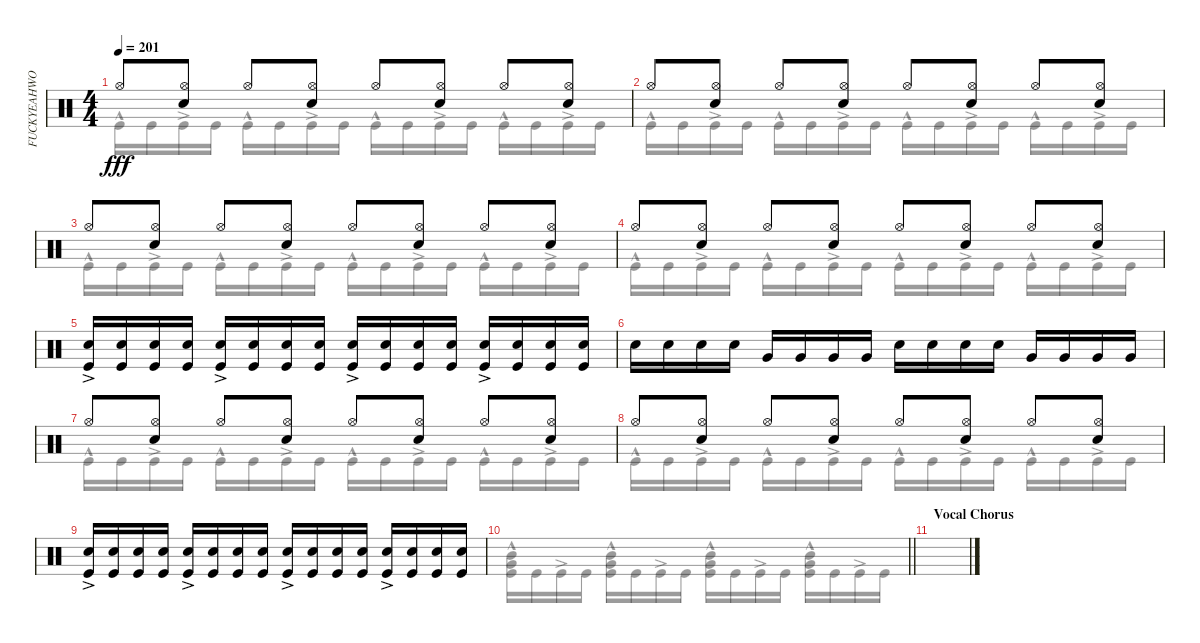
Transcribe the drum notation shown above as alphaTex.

\track ("FUCKYEAHWOOTDAVEMACKINTOSH(Percussion)" "FUCKYEAHWO") {instrument percussion}
\staff {score}
\articulation defaults
\voice
\ts (4 4)
\tempo 201
\clef neutral
\ks c "Hi-Hat (open)".8{dy fff}
("Hi-Hat (open)" "Snare (hit) 2").8 "Hi-Hat (open)".8 ("Hi-Hat (open)" "Snare (hit) 2").8 "Hi-Hat (open)".8 ("Hi-Hat (open)" "Snare (hit) 2").8 "Hi-Hat (open)".8 ("Hi-Hat (open)" "Snare (hit) 2").8 |
"Hi-Hat (open)".8 ("Hi-Hat (open)" "Snare (hit) 2").8 "Hi-Hat (open)".8 ("Hi-Hat (open)" "Snare (hit) 2").8 "Hi-Hat (open)".8 ("Hi-Hat (open)" "Snare (hit) 2").8 "Hi-Hat (open)".8 ("Hi-Hat (open)" "Snare (hit) 2").8 |
"Hi-Hat (open)".8 ("Hi-Hat (open)" "Snare (hit) 2").8 "Hi-Hat (open)".8 ("Hi-Hat (open)" "Snare (hit) 2").8 "Hi-Hat (open)".8 ("Hi-Hat (open)" "Snare (hit) 2").8 "Hi-Hat (open)".8 ("Hi-Hat (open)" "Snare (hit) 2").8 |
"Hi-Hat (open)".8 ("Hi-Hat (open)" "Snare (hit) 2").8 "Hi-Hat (open)".8 ("Hi-Hat (open)" "Snare (hit) 2").8 "Hi-Hat (open)".8 ("Hi-Hat (open)" "Snare (hit) 2").8 "Hi-Hat (open)".8 ("Hi-Hat (open)" "Snare (hit) 2").8 |
("Snare (hit) 2" "Kick (hit)"{ac}).16 ("Snare (hit) 2" "Kick (hit)").16 ("Snare (hit) 2" "Kick (hit)").16 ("Snare (hit) 2" "Kick (hit)").16 ("Snare (hit) 2" "Kick (hit)"{ac}).16 ("Snare (hit) 2" "Kick (hit)").16 ("Kick (hit)" "Snare (hit) 2").16 ("Snare (hit) 2" "Kick (hit)").16 ("Snare (hit) 2" "Kick (hit)"{ac}).16 ("Snare (hit) 2" "Kick (hit)").16 ("Kick (hit)" "Snare (hit) 2").16 ("Snare (hit) 2" "Kick (hit)").16 ("Snare (hit) 2" "Kick (hit)"{ac}).16 ("Snare (hit) 2" "Kick (hit)").16 ("Snare (hit) 2" "Kick (hit)").16 ("Snare (hit) 2" "Kick (hit)").16 |
"Snare (hit) 2".16 "Snare (hit) 2".16 "Snare (hit) 2".16 "Snare (hit) 2".16 "Very Low Tom (hit)".16 "Very Low Tom (hit)".16 "Very Low Tom (hit)".16 "Very Low Tom (hit)".16 "Snare (hit) 2".16 "Snare (hit) 2".16 "Snare (hit) 2".16 "Snare (hit) 2".16 "Very Low Tom (hit)".16 "Very Low Tom (hit)".16 "Very Low Tom (hit)".16 "Very Low Tom (hit)".16 |
"Hi-Hat (open)".8 ("Hi-Hat (open)" "Snare (hit) 2").8 "Hi-Hat (open)".8 ("Hi-Hat (open)" "Snare (hit) 2").8 "Hi-Hat (open)".8 ("Hi-Hat (open)" "Snare (hit) 2").8 "Hi-Hat (open)".8 ("Hi-Hat (open)" "Snare (hit) 2").8 |
"Hi-Hat (open)".8 ("Hi-Hat (open)" "Snare (hit) 2").8 "Hi-Hat (open)".8 ("Hi-Hat (open)" "Snare (hit) 2").8 "Hi-Hat (open)".8 ("Hi-Hat (open)" "Snare (hit) 2").8 "Hi-Hat (open)".8 ("Hi-Hat (open)" "Snare (hit) 2").8 |
("Snare (hit) 2" "Kick (hit)"{ac}).16 ("Snare (hit) 2" "Kick (hit)").16 ("Snare (hit) 2" "Kick (hit)").16 ("Snare (hit) 2" "Kick (hit)").16 ("Snare (hit) 2" "Kick (hit)"{ac}).16 ("Snare (hit) 2" "Kick (hit)").16 ("Kick (hit)" "Snare (hit) 2").16 ("Snare (hit) 2" "Kick (hit)").16 ("Snare (hit) 2" "Kick (hit)"{ac}).16 ("Snare (hit) 2" "Kick (hit)").16 ("Kick (hit)" "Snare (hit) 2").16 ("Snare (hit) 2" "Kick (hit)").16 ("Snare (hit) 2" "Kick (hit)"{ac}).16 ("Snare (hit) 2" "Kick (hit)").16 ("Snare (hit) 2" "Kick (hit)").16 ("Snare (hit) 2" "Kick (hit)").16 |
\barLineRight lightlight
|
\section ("" "Vocal Chorus")
|
|
|
|
|
\voice
\clef neutral
\ottava regular
\simile none
\ks c "Kick (hit)"{hac}.16{dy fff} "Kick (hit)".16 "Kick (hit)"{ac}.16 "Kick (hit)".16 "Kick (hit)"{hac}.16 "Kick (hit)".16 "Kick (hit)"{ac}.16 "Kick (hit)".16 "Kick (hit)"{hac}.16 "Kick (hit)".16 "Kick (hit)"{ac}.16 "Kick (hit)".16 "Kick (hit)"{hac}.16 "Kick (hit)".16 "Kick (hit)"{ac}.16 "Kick (hit)".16
|
"Kick (hit)"{hac}.16 "Kick (hit)".16 "Kick (hit)"{ac}.16 "Kick (hit)".16 "Kick (hit)"{hac}.16 "Kick (hit)".16 "Kick (hit)"{ac}.16 "Kick (hit)".16 "Kick (hit)"{hac}.16 "Kick (hit)".16 "Kick (hit)"{ac}.16 "Kick (hit)".16 "Kick (hit)"{hac}.16 "Kick (hit)".16 "Kick (hit)"{ac}.16 "Kick (hit)".16 |
"Kick (hit)"{hac}.16 "Kick (hit)".16 "Kick (hit)"{ac}.16 "Kick (hit)".16 "Kick (hit)"{hac}.16 "Kick (hit)".16 "Kick (hit)"{ac}.16 "Kick (hit)".16 "Kick (hit)"{hac}.16 "Kick (hit)".16 "Kick (hit)"{ac}.16 "Kick (hit)".16 "Kick (hit)"{hac}.16 "Kick (hit)".16 "Kick (hit)"{ac}.16 "Kick (hit)".16 |
"Kick (hit)"{hac}.16 "Kick (hit)".16 "Kick (hit)"{ac}.16 "Kick (hit)".16 "Kick (hit)"{hac}.16 "Kick (hit)".16 "Kick (hit)"{ac}.16 "Kick (hit)".16 "Kick (hit)"{hac}.16 "Kick (hit)".16 "Kick (hit)"{ac}.16 "Kick (hit)".16 "Kick (hit)"{hac}.16 "Kick (hit)".16 "Kick (hit)"{ac}.16 "Kick (hit)".16 |
|
|
"Kick (hit)"{hac}.16 "Kick (hit)".16 "Kick (hit)"{ac}.16 "Kick (hit)".16 "Kick (hit)"{hac}.16 "Kick (hit)".16 "Kick (hit)"{ac}.16 "Kick (hit)".16 "Kick (hit)"{hac}.16 "Kick (hit)".16 "Kick (hit)"{ac}.16 "Kick (hit)".16 "Kick (hit)"{hac}.16 "Kick (hit)".16 "Kick (hit)"{ac}.16 "Kick (hit)".16 |
"Kick (hit)"{hac}.16 "Kick (hit)".16 "Kick (hit)"{ac}.16 "Kick (hit)".16 "Kick (hit)"{hac}.16 "Kick (hit)".16 "Kick (hit)"{ac}.16 "Kick (hit)".16 "Kick (hit)"{hac}.16 "Kick (hit)".16 "Kick (hit)"{ac}.16 "Kick (hit)".16 "Kick (hit)"{hac}.16 "Kick (hit)".16 "Kick (hit)"{ac}.16 "Kick (hit)".16 |
|
\barLineRight lightlight
("Very Low Tom (hit)" "Kick (hit)"{hac} "Mid Tom (hit)").16 "Kick (hit)".16 "Kick (hit)"{ac}.16 "Kick (hit)".16 ("Kick (hit)"{hac} "Very Low Tom (hit)" "Mid Tom (hit)").16 "Kick (hit)".16 "Kick (hit)"{ac}.16 "Kick (hit)".16 ("Kick (hit)"{hac} "Mid Tom (hit)" "Very Low Tom (hit)").16 "Kick (hit)".16 "Kick (hit)"{ac}.16 "Kick (hit)".16 ("Kick (hit)"{hac} "Mid Tom (hit)" "Very Low Tom (hit)").16 "Kick (hit)".16 "Kick (hit)"{ac}.16 "Kick (hit)".16 |
|
|
|
|
|
